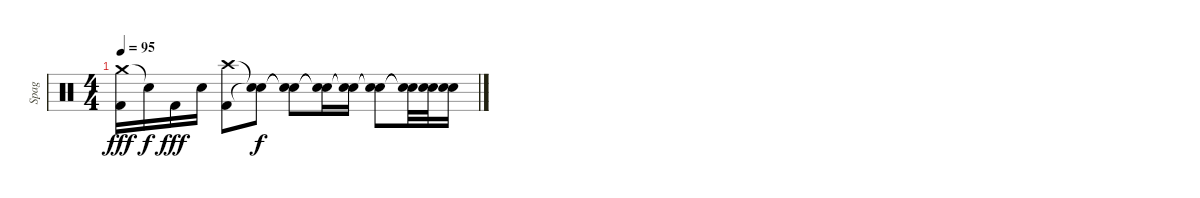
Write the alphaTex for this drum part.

\track ("Spag" "Spag") {instrument percussion}
\staff {score}
\articulation defaults
\ts (4 4)
\tempo 95
\clef neutral
\ks c
("Crash medium (hit)" "Kick (hit) 2").16{dy fff} "Snare (hit)"{t}.16{dy f} "Kick (hit) 2".16{dy fff} "Electric Snare (hit)".16 ("Crash high (hit)" "Kick (hit) 2").8 ("Snare (hit)"{t} "Snare (hit)"{t}).8{dy f} ("Snare (hit)"{t} "Snare (hit)"{t}).8 ("Snare (hit)"{t} "Snare (hit)"{t}).16 ("Snare (hit)"{t} "Snare (hit)"{t}).16 ("Snare (hit)"{t} "Snare (hit)"{t}).8 ("Snare (hit)"{t} "Snare (hit)"{t}).32 ("Snare (hit)"{t} "Snare (hit)"{t}).32 ("Snare (hit)"{t} "Snare (hit)"{t}).16
